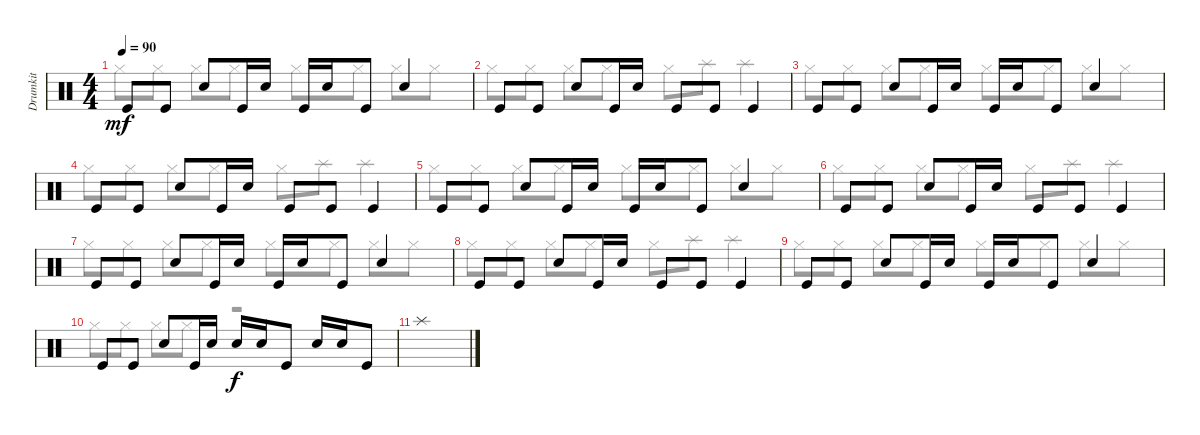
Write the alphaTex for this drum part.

\track ("Drumkit" "Drumkit") {instrument percussion}
\staff {score}
\articulation defaults
\voice
\ts (4 4)
\tempo 90
\clef neutral
\ks c "Kick (hit)".8{dy mf} "Kick (hit)".8 "Snare (hit) 2".8 "Kick (hit)".16 "Snare (hit) 2".16 "Kick (hit)".16 "Snare (hit) 2".16 "Kick (hit)".8 "Snare (hit) 2".4
|
"Kick (hit)".8 "Kick (hit)".8 "Snare (hit) 2".8 "Kick (hit)".16 "Snare (hit) 2".16 "Kick (hit)".8 "Kick (hit)".8 "Kick (hit)".4 |
"Kick (hit)".8 "Kick (hit)".8 "Snare (hit) 2".8 "Kick (hit)".16 "Snare (hit) 2".16 "Kick (hit)".16 "Snare (hit) 2".16 "Kick (hit)".8 "Snare (hit) 2".4 |
"Kick (hit)".8 "Kick (hit)".8 "Snare (hit) 2".8 "Kick (hit)".16 "Snare (hit) 2".16 "Kick (hit)".8 "Kick (hit)".8 "Kick (hit)".4 |
"Kick (hit)".8 "Kick (hit)".8 "Snare (hit) 2".8 "Kick (hit)".16 "Snare (hit) 2".16 "Kick (hit)".16 "Snare (hit) 2".16 "Kick (hit)".8 "Snare (hit) 2".4 |
"Kick (hit)".8 "Kick (hit)".8 "Snare (hit) 2".8 "Kick (hit)".16 "Snare (hit) 2".16 "Kick (hit)".8 "Kick (hit)".8 "Kick (hit)".4 |
"Kick (hit)".8 "Kick (hit)".8 "Snare (hit) 2".8 "Kick (hit)".16 "Snare (hit) 2".16 "Kick (hit)".16 "Snare (hit) 2".16 "Kick (hit)".8 "Snare (hit) 2".4 |
"Kick (hit)".8 "Kick (hit)".8 "Snare (hit) 2".8 "Kick (hit)".16 "Snare (hit) 2".16 "Kick (hit)".8 "Kick (hit)".8 "Kick (hit)".4 |
"Kick (hit)".8 "Kick (hit)".8 "Snare (hit) 2".8 "Kick (hit)".16 "Snare (hit) 2".16 "Kick (hit)".16 "Snare (hit) 2".16 "Kick (hit)".8 "Snare (hit) 2".4 |
"Kick (hit)".8 "Kick (hit)".8 "Snare (hit) 2".8 "Kick (hit)".16 "Snare (hit) 2".16 "Snare (hit) 2".16{dy f} "Snare (hit) 2".16 "Kick (hit)".8 "Snare (hit) 2".16 "Snare (hit) 2".16 "Kick (hit)".8 |
"Splash (hit)".1
\voice
\clef neutral
\ottava regular
\simile none
\ks c "Hi-Hat (closed)".8{dy mf} "Hi-Hat (closed)".8 "Hi-Hat (closed)".8 "Hi-Hat (closed)".8 "Hi-Hat (closed)".8 "Hi-Hat (closed)".8 "Hi-Hat (closed)".8 "Hi-Hat (closed)".8
|
"Hi-Hat (closed)".8 "Hi-Hat (closed)".8 "Hi-Hat (closed)".8 "Hi-Hat (closed)".8 "Hi-Hat (closed)".8 "Splash (hit)".8 "Splash (hit)".4 |
"Hi-Hat (closed)".8 "Hi-Hat (closed)".8 "Hi-Hat (closed)".8 "Hi-Hat (closed)".8 "Hi-Hat (closed)".8 "Hi-Hat (closed)".8 "Hi-Hat (closed)".8 "Hi-Hat (closed)".8 |
"Hi-Hat (closed)".8 "Hi-Hat (closed)".8 "Hi-Hat (closed)".8 "Hi-Hat (closed)".8 "Hi-Hat (closed)".8 "Splash (hit)".8 "Splash (hit)".4 |
"Hi-Hat (closed)".8 "Hi-Hat (closed)".8 "Hi-Hat (closed)".8 "Hi-Hat (closed)".8 "Hi-Hat (closed)".8 "Hi-Hat (closed)".8 "Hi-Hat (closed)".8 "Hi-Hat (closed)".8 |
"Hi-Hat (closed)".8 "Hi-Hat (closed)".8 "Hi-Hat (closed)".8 "Hi-Hat (closed)".8 "Hi-Hat (closed)".8 "Splash (hit)".8 "Splash (hit)".4 |
"Hi-Hat (closed)".8 "Hi-Hat (closed)".8 "Hi-Hat (closed)".8 "Hi-Hat (closed)".8 "Hi-Hat (closed)".8 "Hi-Hat (closed)".8 "Hi-Hat (closed)".8 "Hi-Hat (closed)".8 |
"Hi-Hat (closed)".8 "Hi-Hat (closed)".8 "Hi-Hat (closed)".8 "Hi-Hat (closed)".8 "Hi-Hat (closed)".8 "Splash (hit)".8 "Splash (hit)".4 |
"Hi-Hat (closed)".8 "Hi-Hat (closed)".8 "Hi-Hat (closed)".8 "Hi-Hat (closed)".8 "Hi-Hat (closed)".8 "Hi-Hat (closed)".8 "Hi-Hat (closed)".8 "Hi-Hat (closed)".8 |
"Hi-Hat (closed)".8 "Hi-Hat (closed)".8 "Hi-Hat (closed)".8 "Hi-Hat (closed)".8 r.2 |
